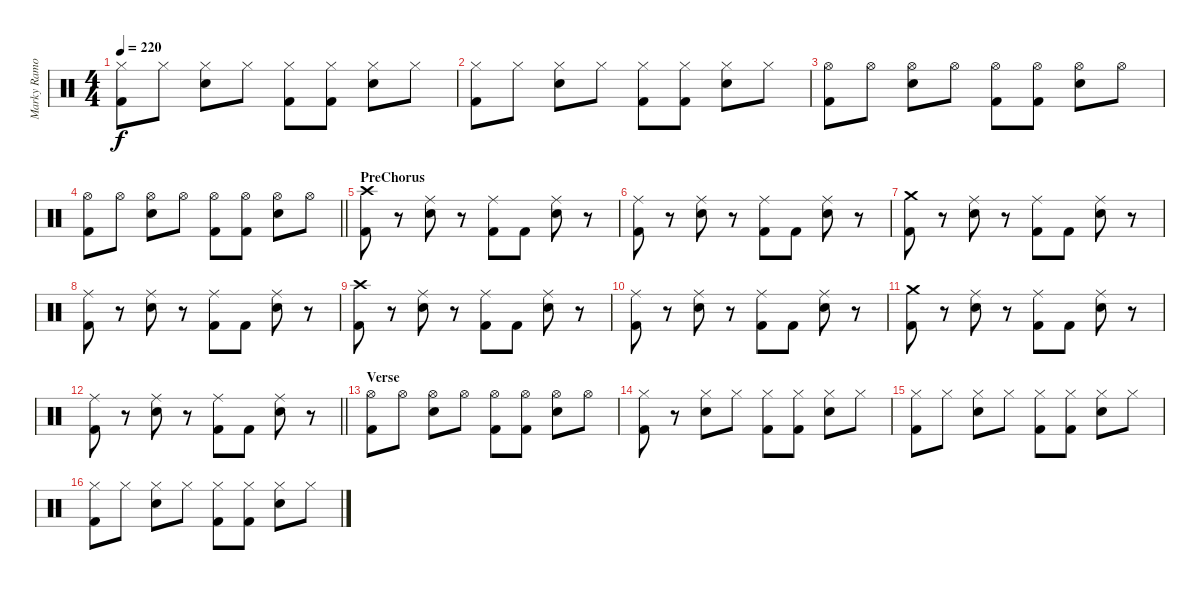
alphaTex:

\track ("Marky Ramone" "Marky Ramo") {instrument percussion}
\staff {score}
\articulation defaults
\ts (4 4)
\tempo 220
\clef neutral
\ks c
("Hi-Hat (closed)" "Kick (hit) 2").8{dy f} "Hi-Hat (closed)".8 ("Hi-Hat (closed)" "Electric Snare (hit)").8 "Hi-Hat (closed)".8 ("Hi-Hat (closed)" "Kick (hit) 2").8 ("Hi-Hat (closed)" "Kick (hit) 2").8 ("Hi-Hat (closed)" "Electric Snare (hit)").8 "Hi-Hat (closed)".8 |
("Hi-Hat (closed)" "Kick (hit) 2").8 "Hi-Hat (closed)".8 ("Hi-Hat (closed)" "Electric Snare (hit)").8 "Hi-Hat (closed)".8 ("Hi-Hat (closed)" "Kick (hit) 2").8 ("Hi-Hat (closed)" "Kick (hit) 2").8 ("Hi-Hat (closed)" "Electric Snare (hit)").8 "Hi-Hat (closed)".8 |
("Hi-Hat (open)" "Kick (hit) 2").8 "Hi-Hat (open)".8 ("Hi-Hat (open)" "Electric Snare (hit)").8 "Hi-Hat (open)".8 ("Hi-Hat (open)" "Kick (hit) 2").8 ("Hi-Hat (open)" "Kick (hit) 2").8 ("Hi-Hat (open)" "Electric Snare (hit)").8 "Hi-Hat (open)".8 |
\barLineRight lightlight
("Hi-Hat (open)" "Kick (hit) 2").8 "Hi-Hat (open)".8 ("Hi-Hat (open)" "Electric Snare (hit)").8 "Hi-Hat (open)".8 ("Hi-Hat (open)" "Kick (hit) 2").8 ("Hi-Hat (open)" "Kick (hit) 2").8 ("Hi-Hat (open)" "Electric Snare (hit)").8 "Hi-Hat (open)".8 |
\section ("" "PreChorus")
("Crash high (hit)" "Kick (hit) 2").8 r.8 ("Ride (middle)" "Electric Snare (hit)").8 r.8 ("Ride (middle)" "Kick (hit) 2").8 "Kick (hit) 2".8 ("Ride (middle)" "Electric Snare (hit)").8 r.8 |
("Ride (middle)" "Kick (hit) 2").8 r.8 ("Ride (middle)" "Electric Snare (hit)").8 r.8 ("Ride (middle)" "Kick (hit) 2").8 "Kick (hit) 2".8 ("Ride (middle)" "Electric Snare (hit)").8 r.8 |
("Crash medium (hit)" "Kick (hit) 2").8 r.8 ("Ride (middle)" "Electric Snare (hit)").8 r.8 ("Ride (middle)" "Kick (hit) 2").8 "Kick (hit) 2".8 ("Ride (middle)" "Electric Snare (hit)").8 r.8 |
("Ride (middle)" "Kick (hit) 2").8 r.8 ("Ride (middle)" "Electric Snare (hit)").8 r.8 ("Ride (middle)" "Kick (hit) 2").8 "Kick (hit) 2".8 ("Ride (middle)" "Electric Snare (hit)").8 r.8 |
("Crash high (hit)" "Kick (hit) 2").8 r.8 ("Ride (middle)" "Electric Snare (hit)").8 r.8 ("Ride (middle)" "Kick (hit) 2").8 "Kick (hit) 2".8 ("Ride (middle)" "Electric Snare (hit)").8 r.8 |
("Ride (middle)" "Kick (hit) 2").8 r.8 ("Ride (middle)" "Electric Snare (hit)").8 r.8 ("Ride (middle)" "Kick (hit) 2").8 "Kick (hit) 2".8 ("Ride (middle)" "Electric Snare (hit)").8 r.8 |
("Crash medium (hit)" "Kick (hit) 2").8 r.8 ("Ride (middle)" "Electric Snare (hit)").8 r.8 ("Ride (middle)" "Kick (hit) 2").8 "Kick (hit) 2".8 ("Ride (middle)" "Electric Snare (hit)").8 r.8 |
\barLineRight lightlight
("Ride (middle)" "Kick (hit) 2").8 r.8 ("Ride (middle)" "Electric Snare (hit)").8 r.8 ("Ride (middle)" "Kick (hit) 2").8 "Kick (hit) 2".8 ("Ride (middle)" "Electric Snare (hit)").8 r.8 |
\section ("" "Verse")
("Hi-Hat (open)" "Kick (hit) 2").8 "Hi-Hat (open)".8 ("Hi-Hat (open)" "Electric Snare (hit)").8 "Hi-Hat (open)".8 ("Hi-Hat (open)" "Kick (hit) 2").8 ("Hi-Hat (open)" "Kick (hit) 2").8 ("Hi-Hat (open)" "Electric Snare (hit)").8 "Hi-Hat (open)".8 |
("Hi-Hat (closed)" "Kick (hit) 2").8 r.8 ("Hi-Hat (closed)" "Electric Snare (hit)").8 "Hi-Hat (closed)".8 ("Hi-Hat (closed)" "Kick (hit) 2").8 ("Hi-Hat (closed)" "Kick (hit) 2").8 ("Hi-Hat (closed)" "Electric Snare (hit)").8 "Hi-Hat (closed)".8 |
("Hi-Hat (closed)" "Kick (hit) 2").8 "Hi-Hat (closed)".8 ("Hi-Hat (closed)" "Electric Snare (hit)").8 "Hi-Hat (closed)".8 ("Hi-Hat (closed)" "Kick (hit) 2").8 ("Hi-Hat (closed)" "Kick (hit) 2").8 ("Hi-Hat (closed)" "Electric Snare (hit)").8 "Hi-Hat (closed)".8 |
("Hi-Hat (closed)" "Kick (hit) 2").8 "Hi-Hat (closed)".8 ("Hi-Hat (closed)" "Electric Snare (hit)").8 "Hi-Hat (closed)".8 ("Hi-Hat (closed)" "Kick (hit) 2").8 ("Hi-Hat (closed)" "Kick (hit) 2").8 ("Hi-Hat (closed)" "Electric Snare (hit)").8 "Hi-Hat (closed)".8
